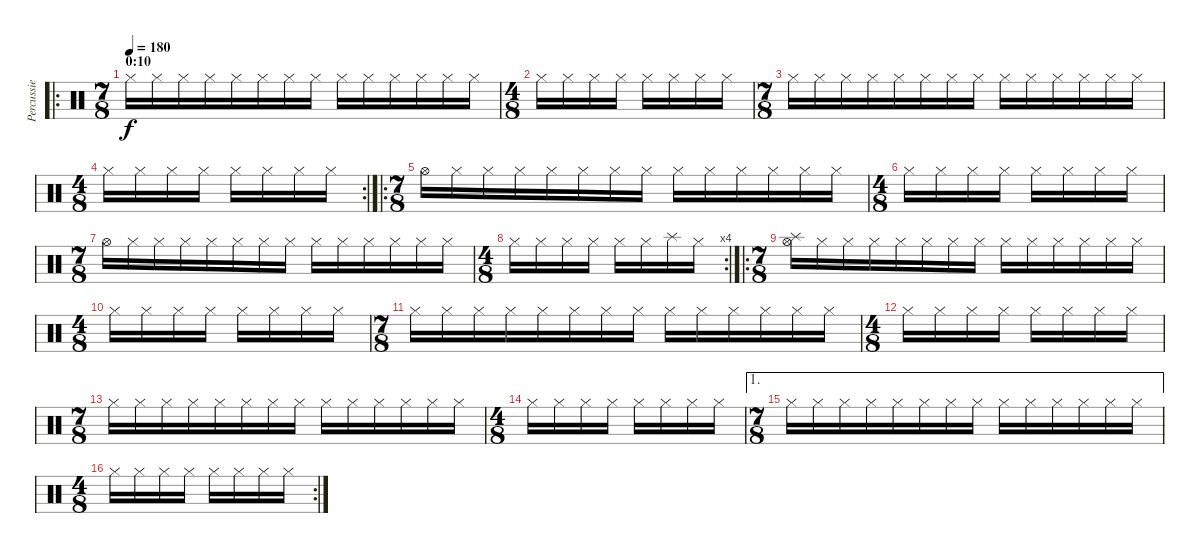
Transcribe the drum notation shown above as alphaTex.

\track ("Percussie" "Percussie") {instrument percussion}
\staff {score}
\articulation defaults
\ro
\ts (7 8)
\section ("" "0:10")
\tempo 180
\clef neutral
\ks c "Hi-Hat (closed)".16{dy f balance 16} "Hi-Hat (closed)".16 "Hi-Hat (closed)".16 "Hi-Hat (closed)".16{balance 0} "Hi-Hat (closed)".16 "Hi-Hat (closed)".16{balance 16} "Hi-Hat (closed)".16 "Hi-Hat (closed)".16 "Hi-Hat (closed)".16{balance 0} "Hi-Hat (closed)".16 "Hi-Hat (closed)".16{balance 16} "Hi-Hat (closed)".16 "Hi-Hat (closed)".16 "Hi-Hat (closed)".16{balance 0}
|
\ts (4 8)
"Hi-Hat (closed)".16 "Hi-Hat (closed)".16{balance 16} "Hi-Hat (closed)".16 "Hi-Hat (closed)".16 "Hi-Hat (closed)".16{balance 0} "Hi-Hat (closed)".16 "Hi-Hat (closed)".16{balance 16} "Hi-Hat (closed)".16 |
\ts (7 8)
"Hi-Hat (closed)".16 "Hi-Hat (closed)".16{balance 0} "Hi-Hat (closed)".16 "Hi-Hat (closed)".16{balance 16} "Hi-Hat (closed)".16 "Hi-Hat (closed)".16 "Hi-Hat (closed)".16{balance 0} "Hi-Hat (closed)".16 "Hi-Hat (closed)".16{balance 16} "Hi-Hat (closed)".16 "Hi-Hat (closed)".16 "Hi-Hat (closed)".16{balance 0} "Hi-Hat (closed)".16 "Hi-Hat (closed)".16{balance 16} |
\rc 2
\ts (4 8)
"Hi-Hat (closed)".16 "Hi-Hat (closed)".16 "Hi-Hat (closed)".16{balance 0} "Hi-Hat (closed)".16 "Hi-Hat (closed)".16{balance 16} "Hi-Hat (closed)".16 "Hi-Hat (closed)".16 "Hi-Hat (closed)".16{balance 0} |
\ro
\ts (7 8)
"Hi-Hat (open)".16{balance 16} "Hi-Hat (closed)".16 "Hi-Hat (closed)".16 "Hi-Hat (closed)".16{balance 0} "Hi-Hat (closed)".16 "Hi-Hat (closed)".16{balance 16} "Hi-Hat (closed)".16 "Hi-Hat (closed)".16 "Hi-Hat (closed)".16{balance 0} "Hi-Hat (closed)".16 "Hi-Hat (closed)".16{balance 16} "Hi-Hat (closed)".16 "Hi-Hat (closed)".16 "Hi-Hat (closed)".16{balance 0} |
\ts (4 8)
"Hi-Hat (closed)".16 "Hi-Hat (closed)".16{balance 16} "Hi-Hat (closed)".16 "Hi-Hat (closed)".16 "Hi-Hat (closed)".16{balance 0} "Hi-Hat (closed)".16 "Hi-Hat (closed)".16{balance 16} "Hi-Hat (closed)".16 |
\ts (7 8)
"Hi-Hat (open)".16 "Hi-Hat (closed)".16{balance 0} "Hi-Hat (closed)".16 "Hi-Hat (closed)".16{balance 16} "Hi-Hat (closed)".16 "Hi-Hat (closed)".16 "Hi-Hat (closed)".16{balance 0} "Hi-Hat (closed)".16 "Hi-Hat (closed)".16{balance 16} "Hi-Hat (closed)".16 "Hi-Hat (closed)".16 "Hi-Hat (closed)".16{balance 0} "Hi-Hat (closed)".16 "Hi-Hat (closed)".16{balance 16} |
\rc 4
\ts (4 8)
"Hi-Hat (closed)".16 "Hi-Hat (closed)".16 "Hi-Hat (closed)".16{balance 0} "Hi-Hat (closed)".16 "Hi-Hat (closed)".16{balance 16} "Hi-Hat (closed)".16 "Splash (hit)".16 "Hi-Hat (closed)".16{balance 0} |
\ro
\ts (7 8)
("Splash (hit)" "Hi-Hat (open)").16{balance 16} "Hi-Hat (closed)".16 "Hi-Hat (closed)".16 "Hi-Hat (closed)".16{balance 0} "Hi-Hat (closed)".16 "Hi-Hat (closed)".16{balance 16} "Hi-Hat (closed)".16 "Hi-Hat (closed)".16 "Hi-Hat (closed)".16{balance 0} "Hi-Hat (closed)".16 "Hi-Hat (closed)".16{balance 16} "Hi-Hat (closed)".16 "Hi-Hat (closed)".16 "Hi-Hat (closed)".16{balance 0} |
\ts (4 8)
"Hi-Hat (closed)".16 "Hi-Hat (closed)".16{balance 16} "Hi-Hat (closed)".16 "Hi-Hat (closed)".16 "Hi-Hat (closed)".16{balance 0} "Hi-Hat (closed)".16 "Hi-Hat (closed)".16{balance 16} "Hi-Hat (closed)".16 |
\ts (7 8)
"Hi-Hat (closed)".16 "Hi-Hat (closed)".16{balance 0} "Hi-Hat (closed)".16 "Hi-Hat (closed)".16{balance 16} "Hi-Hat (closed)".16 "Hi-Hat (closed)".16 "Hi-Hat (closed)".16{balance 0} "Hi-Hat (closed)".16 "Hi-Hat (closed)".16{balance 16} "Hi-Hat (closed)".16 "Hi-Hat (closed)".16 "Hi-Hat (closed)".16{balance 0} "Hi-Hat (closed)".16 "Hi-Hat (closed)".16{balance 16} |
\ts (4 8)
"Hi-Hat (closed)".16 "Hi-Hat (closed)".16 "Hi-Hat (closed)".16{balance 0} "Hi-Hat (closed)".16 "Hi-Hat (closed)".16{balance 16} "Hi-Hat (closed)".16 "Hi-Hat (closed)".16 "Hi-Hat (closed)".16{balance 0} |
\ts (7 8)
"Hi-Hat (closed)".16 "Hi-Hat (closed)".16{balance 0} "Hi-Hat (closed)".16 "Hi-Hat (closed)".16{balance 16} "Hi-Hat (closed)".16 "Hi-Hat (closed)".16 "Hi-Hat (closed)".16{balance 0} "Hi-Hat (closed)".16 "Hi-Hat (closed)".16{balance 16} "Hi-Hat (closed)".16 "Hi-Hat (closed)".16 "Hi-Hat (closed)".16{balance 0} "Hi-Hat (closed)".16 "Hi-Hat (closed)".16{balance 16} |
\ts (4 8)
"Hi-Hat (closed)".16 "Hi-Hat (closed)".16 "Hi-Hat (closed)".16{balance 0} "Hi-Hat (closed)".16 "Hi-Hat (closed)".16{balance 16} "Hi-Hat (closed)".16 "Hi-Hat (closed)".16 "Hi-Hat (closed)".16{balance 0} |
\ae 1
\ts (7 8)
"Hi-Hat (closed)".16 "Hi-Hat (closed)".16{balance 0} "Hi-Hat (closed)".16 "Hi-Hat (closed)".16{balance 16} "Hi-Hat (closed)".16 "Hi-Hat (closed)".16 "Hi-Hat (closed)".16{balance 0} "Hi-Hat (closed)".16 "Hi-Hat (closed)".16{balance 16} "Hi-Hat (closed)".16 "Hi-Hat (closed)".16 "Hi-Hat (closed)".16{balance 0} "Hi-Hat (closed)".16 "Hi-Hat (closed)".16{balance 16} |
\rc 2
\ts (4 8)
"Hi-Hat (closed)".16 "Hi-Hat (closed)".16 "Hi-Hat (closed)".16{balance 0} "Hi-Hat (closed)".16 "Hi-Hat (closed)".16{balance 16} "Hi-Hat (closed)".16 "Hi-Hat (closed)".16 "Hi-Hat (closed)".16{balance 0}
